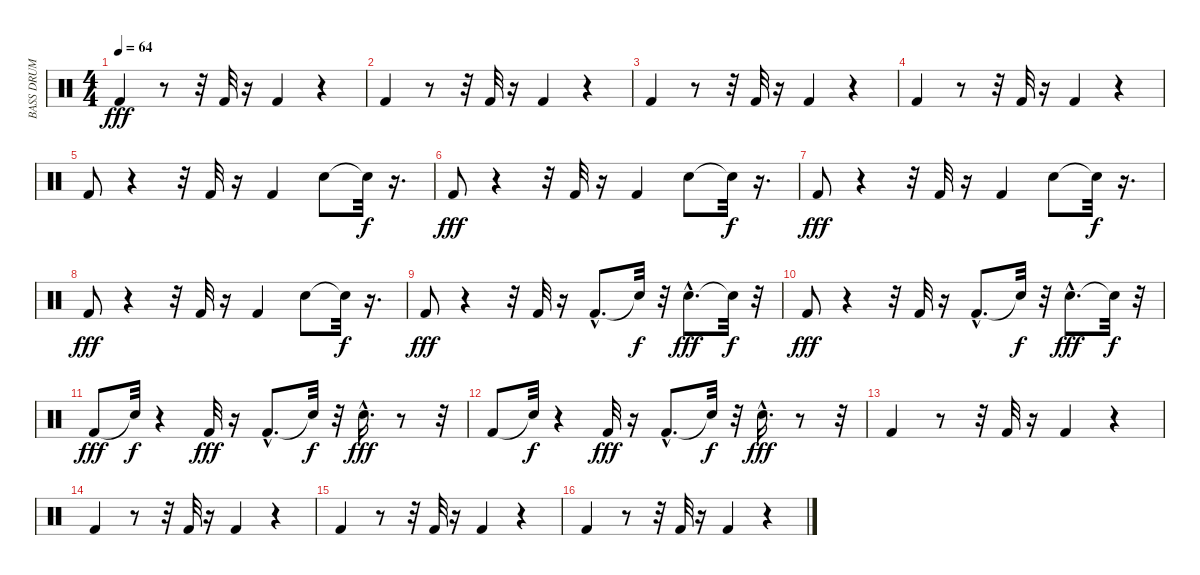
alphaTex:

\track ("BASS DRUM" "BASS DRUM") {instrument percussion}
\staff {score}
\articulation defaults
\ts (4 4)
\tempo 64
\clef neutral
\ks c "Kick (hit) 2".4{dy fff}
r.8 r.32 "Kick (hit) 2".32 r.16 "Kick (hit) 2".4 r.4 |
"Kick (hit) 2".4 r.8 r.32 "Kick (hit) 2".32 r.16 "Kick (hit) 2".4 r.4 |
"Kick (hit) 2".4 r.8 r.32 "Kick (hit) 2".32 r.16 "Kick (hit) 2".4 r.4 |
"Kick (hit) 2".4 r.8 r.32 "Kick (hit) 2".32 r.16 "Kick (hit) 2".4 r.4 |
"Kick (hit) 2".8 r.4 r.32 "Kick (hit) 2".32 r.16 "Kick (hit) 2".4 "Snare (hit) 2".8 "Snare (hit)"{t}.32{dy f} r.16{d} |
"Kick (hit) 2".8{dy fff} r.4 r.32 "Kick (hit) 2".32 r.16 "Kick (hit) 2".4 "Snare (hit) 2".8 "Snare (hit)"{t}.32{dy f} r.16{d} |
"Kick (hit) 2".8{dy fff} r.4 r.32 "Kick (hit) 2".32 r.16 "Kick (hit) 2".4 "Snare (hit) 2".8 "Snare (hit)"{t}.32{dy f} r.16{d} |
"Kick (hit) 2".8{dy fff} r.4 r.32 "Kick (hit) 2".32 r.16 "Kick (hit) 2".4 "Snare (hit) 2".8 "Snare (hit)"{t}.32{dy f} r.16{d} |
"Kick (hit) 2".8{dy fff} r.4 r.32 "Kick (hit) 2".32 r.16 "Kick (hit) 2"{hac}.8{d} "Snare (hit)"{t}.32{dy f} r.32 "Snare (hit) 2"{hac}.8{d dy fff} "Snare (hit)"{t}.32{dy f} r.32 |
"Kick (hit) 2".8{dy fff} r.4 r.32 "Kick (hit) 2".32 r.16 "Kick (hit) 2"{hac}.8{d} "Snare (hit)"{t}.32{dy f} r.32 "Snare (hit) 2"{hac}.8{d dy fff} "Snare (hit)"{t}.32{dy f} r.32 |
"Kick (hit) 2".8{dy fff} "Snare (hit)"{t}.32{dy f} r.4 "Kick (hit) 2".32{dy fff} r.16 "Kick (hit) 2"{hac}.8{d} "Snare (hit)"{t}.32{dy f} r.32 "Snare (hit) 2"{hac}.16{d dy fff} r.8 r.32 |
"Kick (hit) 2".8 "Snare (hit)"{t}.32{dy f} r.4 "Kick (hit) 2".32{dy fff} r.16 "Kick (hit) 2"{hac}.8{d} "Snare (hit)"{t}.32{dy f} r.32 "Snare (hit) 2"{hac}.16{d dy fff} r.8 r.32 |
"Kick (hit) 2".4 r.8 r.32 "Kick (hit) 2".32 r.16 "Kick (hit) 2".4 r.4 |
"Kick (hit) 2".4 r.8 r.32 "Kick (hit) 2".32 r.16 "Kick (hit) 2".4 r.4 |
"Kick (hit) 2".4 r.8 r.32 "Kick (hit) 2".32 r.16 "Kick (hit) 2".4 r.4 |
"Kick (hit) 2".4 r.8 r.32 "Kick (hit) 2".32 r.16 "Kick (hit) 2".4 r.4
